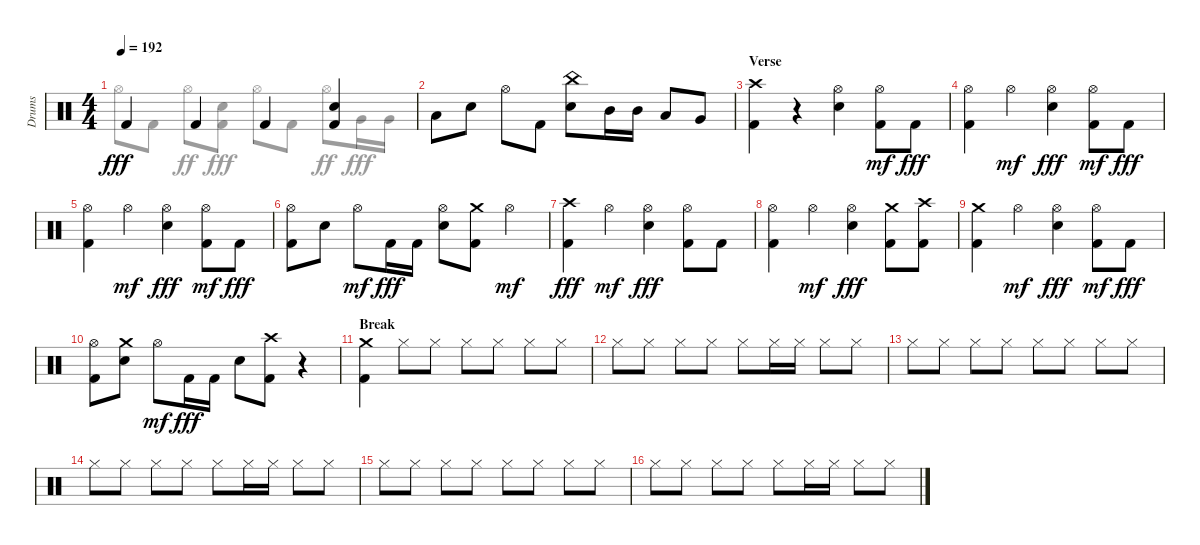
\track ("Drums" "Drums") {instrument percussion}
\staff {score}
\articulation defaults
\voice
\ts (4 4)
\tempo 192
\clef neutral
\ks aminor "Kick (hit) 2".4{dy fff} "Kick (hit) 2".4 "Kick (hit) 2".4
("Kick (hit) 2" "Snare (hit) 2").4 |
"Low Floor Tom (hit)".8 "Snare (hit) 2".8 "Hi-Hat (open)".8 "Kick (hit) 2".8 ("China (hit)" "Snare (hit) 2").8 "Mid Tom (hit)".16 "Mid Tom (hit)".16 "Low Tom (hit)".8 "Very Low Tom (hit)".8 |
\section ("" "Verse")
("Kick (hit) 2" "Crash high (hit)").4 r.4 ("Hi-Hat (open)" "Snare (hit) 2").4 ("Hi-Hat (open)" "Kick (hit) 2").8{dy mf} "Kick (hit) 2".8{dy fff} |
("Kick (hit) 2" "Hi-Hat (open)").4 "Hi-Hat (open)".4{dy mf} ("Snare (hit) 2" "Hi-Hat (open)").4{dy fff} ("Hi-Hat (open)" "Kick (hit) 2").8{dy mf} "Kick (hit) 2".8{dy fff} |
("Hi-Hat (open)" "Kick (hit) 2").4 "Hi-Hat (open)".4{dy mf} ("Snare (hit) 2" "Hi-Hat (open)").4{dy fff} ("Kick (hit) 2" "Hi-Hat (open)").8{dy mf} "Kick (hit) 2".8{dy fff} |
("Kick (hit) 2" "Hi-Hat (open)").8 "Snare (hit) 2".8 "Hi-Hat (open)".8{dy mf} "Kick (hit) 2".16{dy fff} "Kick (hit) 2".16 ("Hi-Hat (open)" "Snare (hit) 2").8 ("Crash medium (hit)" "Kick (hit) 2").8 "Hi-Hat (open)".4{dy mf} |
("Crash high (hit)" "Kick (hit) 2").4{dy fff} "Hi-Hat (open)".4{dy mf} ("Hi-Hat (open)" "Snare (hit) 2").4{dy fff} ("Kick (hit) 2" "Hi-Hat (open)").8 "Kick (hit) 2".8 |
("Hi-Hat (open)" "Kick (hit) 2").4 "Hi-Hat (open)".4{dy mf} ("Hi-Hat (open)" "Snare (hit) 2").4{dy fff} ("Crash medium (hit)" "Kick (hit) 2").8 ("Kick (hit) 2" "Crash high (hit)").8 |
("Kick (hit) 2" "Crash medium (hit)").4 "Hi-Hat (open)".4{dy mf} ("Snare (hit) 2" "Hi-Hat (open)").4{dy fff} ("Hi-Hat (open)" "Kick (hit) 2").8{dy mf} "Kick (hit) 2".8{dy fff} |
("Hi-Hat (open)" "Kick (hit) 2").8 ("Crash medium (hit)" "Snare (hit) 2").8 "Hi-Hat (open)".8{dy mf} "Kick (hit) 2".16{dy fff} "Kick (hit) 2".16 "Snare (hit) 2".8 ("Crash high (hit)" "Kick (hit) 2").8 r.4 |
\section ("" "Break")
("Kick (hit) 2" "Crash medium (hit)").4 "Hi-Hat (closed)".8 "Hi-Hat (closed)".8 "Hi-Hat (closed)".8 "Hi-Hat (closed)".8 "Hi-Hat (closed)".8 "Hi-Hat (closed)".8 |
"Hi-Hat (closed)".8 "Hi-Hat (closed)".8 "Hi-Hat (closed)".8 "Hi-Hat (closed)".8 "Hi-Hat (closed)".8 "Hi-Hat (closed)".16 "Hi-Hat (closed)".16 "Hi-Hat (closed)".8 "Hi-Hat (closed)".8 |
"Hi-Hat (closed)".8 "Hi-Hat (closed)".8 "Hi-Hat (closed)".8 "Hi-Hat (closed)".8 "Hi-Hat (closed)".8 "Hi-Hat (closed)".8 "Hi-Hat (closed)".8 "Hi-Hat (closed)".8 |
"Hi-Hat (closed)".8 "Hi-Hat (closed)".8 "Hi-Hat (closed)".8 "Hi-Hat (closed)".8 "Hi-Hat (closed)".8 "Hi-Hat (closed)".16 "Hi-Hat (closed)".16 "Hi-Hat (closed)".8 "Hi-Hat (closed)".8 |
"Hi-Hat (closed)".8 "Hi-Hat (closed)".8 "Hi-Hat (closed)".8 "Hi-Hat (closed)".8 "Hi-Hat (closed)".8 "Hi-Hat (closed)".8 "Hi-Hat (closed)".8 "Hi-Hat (closed)".8 |
"Hi-Hat (closed)".8 "Hi-Hat (closed)".8 "Hi-Hat (closed)".8 "Hi-Hat (closed)".8 "Hi-Hat (closed)".8 "Hi-Hat (closed)".16 "Hi-Hat (closed)".16 "Hi-Hat (closed)".8 "Hi-Hat (closed)".8
\voice
\clef neutral
\ottava regular
\simile none
\ks aminor "Hi-Hat (open)".8{dy fff} "Kick (hit) 2".8 "Hi-Hat (open)".8{dy ff}
("Kick (hit) 2" "Snare (hit) 2").8{dy fff} "Hi-Hat (open)".8 "Kick (hit) 2".8 "Hi-Hat (open)".8{dy ff} "Very Low Tom (hit)".16{dy fff} "Very Low Tom (hit)".16 |
|
|
|
|
|
|
|
|
|
|
|
|
|
|
